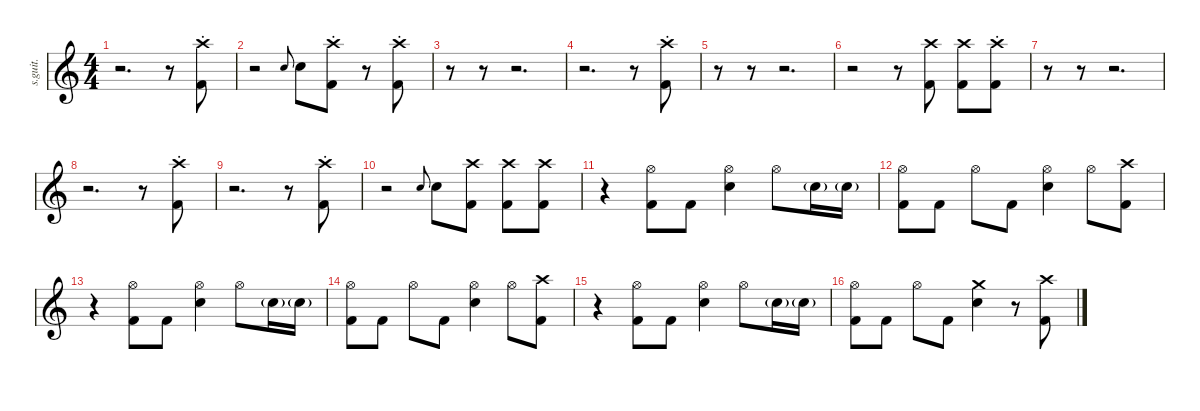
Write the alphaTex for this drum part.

\defaultSystemsLayout 4
\hideDynamics
\bracketExtendMode nobrackets
\track ("Nick Menza (Drums)" "s.guit.") {instrument percussion}
\staff {score}
\articulation defaults
\ts (4 4)
\tempo (196 hide)
\clef g2
\ks c
r.2{d dy f} r.8 ("Crash high (choke)" "Kick (hit) 2").8{lyrics (0 "") lyrics (1 "") lyrics (2 "") lyrics (3 "") lyrics (4 "")} |
r.2 "Snare (hit) 2".8{lyrics (0 "") lyrics (1 "") lyrics (2 "") lyrics (3 "") lyrics (4 "") gr onbeat} "Snare (hit) 2".8{lyrics (0 "") lyrics (1 "") lyrics (2 "") lyrics (3 "") lyrics (4 "")} ("Crash high (choke)" "Kick (hit) 2").8{lyrics (0 "") lyrics (1 "") lyrics (2 "") lyrics (3 "") lyrics (4 "")} r.8 ("Crash high (choke)" "Kick (hit) 2").8{lyrics (0 "") lyrics (1 "") lyrics (2 "") lyrics (3 "") lyrics (4 "")} |
r.8 r.8 r.2{d} |
r.2{d} r.8 ("Crash high (choke)" "Kick (hit) 2").8{lyrics (0 "") lyrics (1 "") lyrics (2 "") lyrics (3 "") lyrics (4 "")} |
r.8 r.8 r.2{d} |
r.2 r.8 ("Crash high (hit)" "Kick (hit) 2").8{lyrics (0 "") lyrics (1 "") lyrics (2 "") lyrics (3 "") lyrics (4 "")} ("Crash high (hit)" "Kick (hit) 2").8{lyrics (0 "") lyrics (1 "") lyrics (2 "") lyrics (3 "") lyrics (4 "")} ("Crash high (choke)" "Kick (hit) 2").8{lyrics (0 "") lyrics (1 "") lyrics (2 "") lyrics (3 "") lyrics (4 "")} |
r.8 r.8 r.2{d} |
r.2{d} r.8 ("Crash high (choke)" "Kick (hit) 2").8{lyrics (0 "") lyrics (1 "") lyrics (2 "") lyrics (3 "") lyrics (4 "")} |
r.2{d} r.8 ("Crash high (choke)" "Kick (hit) 2").8{lyrics (0 "") lyrics (1 "") lyrics (2 "") lyrics (3 "") lyrics (4 "")} |
r.2 "Snare (hit) 2".8{lyrics (0 "") lyrics (1 "") lyrics (2 "") lyrics (3 "") lyrics (4 "") gr onbeat} "Snare (hit) 2".8{lyrics (0 "") lyrics (1 "") lyrics (2 "") lyrics (3 "") lyrics (4 "")} ("Crash high (hit)" "Kick (hit) 2").8{lyrics (0 "") lyrics (1 "") lyrics (2 "") lyrics (3 "") lyrics (4 "")} ("Crash high (hit)" "Kick (hit) 2").8{lyrics (0 "") lyrics (1 "") lyrics (2 "") lyrics (3 "") lyrics (4 "")} ("Crash high (hit)" "Kick (hit) 2").8{lyrics (0 "") lyrics (1 "") lyrics (2 "") lyrics (3 "") lyrics (4 "")} |
r.4 ("Hi-Hat (open)" "Kick (hit) 2").8{lyrics (0 "") lyrics (1 "") lyrics (2 "") lyrics (3 "") lyrics (4 "")} "Kick (hit) 2".8{lyrics (0 "") lyrics (1 "") lyrics (2 "") lyrics (3 "") lyrics (4 "") dy fff} ("Hi-Hat (open)" "Snare (hit) 2").4{lyrics (0 "") lyrics (1 "") lyrics (2 "") lyrics (3 "") lyrics (4 "") dy f} "Hi-Hat (open)".8{lyrics (0 "") lyrics (1 "") lyrics (2 "") lyrics (3 "") lyrics (4 "")} "Snare (hit) 2"{g}.16{lyrics (0 "") lyrics (1 "") lyrics (2 "") lyrics (3 "") lyrics (4 "") dy mp} "Snare (hit) 2"{g}.16{lyrics (0 "") lyrics (1 "") lyrics (2 "") lyrics (3 "") lyrics (4 "")} |
("Hi-Hat (open)" "Kick (hit) 2").8{lyrics (0 "") lyrics (1 "") lyrics (2 "") lyrics (3 "") lyrics (4 "") dy f} "Kick (hit) 2".8{lyrics (0 "") lyrics (1 "") lyrics (2 "") lyrics (3 "") lyrics (4 "") dy fff} "Hi-Hat (open)".8{lyrics (0 "") lyrics (1 "") lyrics (2 "") lyrics (3 "") lyrics (4 "") dy f} "Kick (hit) 2".8{lyrics (0 "") lyrics (1 "") lyrics (2 "") lyrics (3 "") lyrics (4 "") dy fff} ("Hi-Hat (open)" "Snare (hit) 2").4{lyrics (0 "") lyrics (1 "") lyrics (2 "") lyrics (3 "") lyrics (4 "") dy f} "Hi-Hat (open)".8{lyrics (0 "") lyrics (1 "") lyrics (2 "") lyrics (3 "") lyrics (4 "")} ("Crash high (hit)" "Kick (hit) 2").8{lyrics (0 "") lyrics (1 "") lyrics (2 "") lyrics (3 "") lyrics (4 "")} |
r.4 ("Hi-Hat (open)" "Kick (hit) 2").8{lyrics (0 "") lyrics (1 "") lyrics (2 "") lyrics (3 "") lyrics (4 "")} "Kick (hit) 2".8{lyrics (0 "") lyrics (1 "") lyrics (2 "") lyrics (3 "") lyrics (4 "") dy fff} ("Hi-Hat (open)" "Snare (hit) 2").4{lyrics (0 "") lyrics (1 "") lyrics (2 "") lyrics (3 "") lyrics (4 "") dy f} "Hi-Hat (open)".8{lyrics (0 "") lyrics (1 "") lyrics (2 "") lyrics (3 "") lyrics (4 "")} "Snare (hit) 2"{g}.16{lyrics (0 "") lyrics (1 "") lyrics (2 "") lyrics (3 "") lyrics (4 "") dy mp} "Snare (hit) 2"{g}.16{lyrics (0 "") lyrics (1 "") lyrics (2 "") lyrics (3 "") lyrics (4 "")} |
("Hi-Hat (open)" "Kick (hit) 2").8{lyrics (0 "") lyrics (1 "") lyrics (2 "") lyrics (3 "") lyrics (4 "") dy f} "Kick (hit) 2".8{lyrics (0 "") lyrics (1 "") lyrics (2 "") lyrics (3 "") lyrics (4 "") dy fff} "Hi-Hat (open)".8{lyrics (0 "") lyrics (1 "") lyrics (2 "") lyrics (3 "") lyrics (4 "") dy f} "Kick (hit) 2".8{lyrics (0 "") lyrics (1 "") lyrics (2 "") lyrics (3 "") lyrics (4 "") dy fff} ("Hi-Hat (open)" "Snare (hit) 2").4{lyrics (0 "") lyrics (1 "") lyrics (2 "") lyrics (3 "") lyrics (4 "") dy f} "Hi-Hat (open)".8{lyrics (0 "") lyrics (1 "") lyrics (2 "") lyrics (3 "") lyrics (4 "")} ("Crash high (hit)" "Kick (hit) 2").8{lyrics (0 "") lyrics (1 "") lyrics (2 "") lyrics (3 "") lyrics (4 "")} |
r.4 ("Hi-Hat (open)" "Kick (hit) 2").8{lyrics (0 "") lyrics (1 "") lyrics (2 "") lyrics (3 "") lyrics (4 "")} "Kick (hit) 2".8{lyrics (0 "") lyrics (1 "") lyrics (2 "") lyrics (3 "") lyrics (4 "") dy fff} ("Hi-Hat (open)" "Snare (hit) 2").4{lyrics (0 "") lyrics (1 "") lyrics (2 "") lyrics (3 "") lyrics (4 "") dy f} "Hi-Hat (open)".8{lyrics (0 "") lyrics (1 "") lyrics (2 "") lyrics (3 "") lyrics (4 "")} "Snare (hit) 2"{g}.16{lyrics (0 "") lyrics (1 "") lyrics (2 "") lyrics (3 "") lyrics (4 "") dy mp} "Snare (hit) 2"{g}.16{lyrics (0 "") lyrics (1 "") lyrics (2 "") lyrics (3 "") lyrics (4 "")} |
("Hi-Hat (open)" "Kick (hit) 2").8{lyrics (0 "") lyrics (1 "") lyrics (2 "") lyrics (3 "") lyrics (4 "") dy f} "Kick (hit) 2".8{lyrics (0 "") lyrics (1 "") lyrics (2 "") lyrics (3 "") lyrics (4 "") dy fff} "Hi-Hat (open)".8{lyrics (0 "") lyrics (1 "") lyrics (2 "") lyrics (3 "") lyrics (4 "") dy f} "Kick (hit) 2".8{lyrics (0 "") lyrics (1 "") lyrics (2 "") lyrics (3 "") lyrics (4 "") dy fff} ("Crash medium (hit)" "Snare (hit) 2").4{lyrics (0 "") lyrics (1 "") lyrics (2 "") lyrics (3 "") lyrics (4 "") dy f} r.8 ("Crash high (hit)" "Kick (hit) 2").8{lyrics (0 "") lyrics (1 "") lyrics (2 "") lyrics (3 "") lyrics (4 "")}
